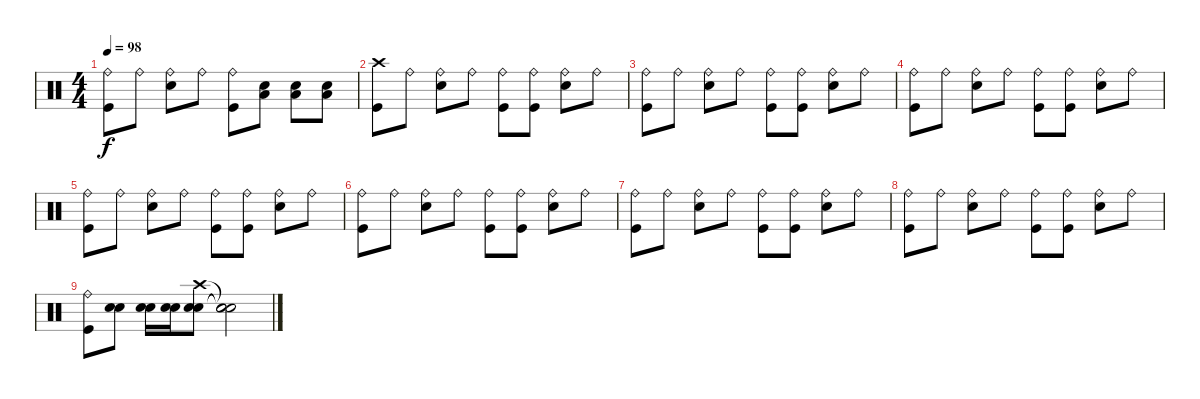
\track "" {instrument percussion}
\staff {score}
\articulation defaults
\ts (4 4)
\tempo 98
\clef neutral
\ks c
("Ride (bell)" "Kick (hit)").8{dy f} "Ride (bell)".8 ("Ride (bell)" "Snare (hit) 2").8 "Ride (bell)".8 ("Ride (bell)" "Kick (hit)").8 ("Low Tom (hit)" "Snare (hit) 2").8 ("Low Tom (hit)" "Snare (hit) 2").8 ("Low Tom (hit)" "Snare (hit) 2").8 |
("Crash high (hit)" "Kick (hit)").8 "Ride (bell)".8 ("Ride (bell)" "Snare (hit) 2").8 "Ride (bell)".8 ("Ride (bell)" "Kick (hit)").8 ("Ride (bell)" "Kick (hit)").8 ("Ride (bell)" "Snare (hit) 2").8 "Ride (bell)".8 |
("Ride (bell)" "Kick (hit)").8 "Ride (bell)".8 ("Ride (bell)" "Snare (hit) 2").8 "Ride (bell)".8 ("Ride (bell)" "Kick (hit)").8 ("Ride (bell)" "Kick (hit)").8 ("Ride (bell)" "Snare (hit) 2").8 "Ride (bell)".8 |
("Ride (bell)" "Kick (hit)").8 "Ride (bell)".8 ("Ride (bell)" "Snare (hit) 2").8 "Ride (bell)".8 ("Ride (bell)" "Kick (hit)").8 ("Ride (bell)" "Kick (hit)").8 ("Ride (bell)" "Snare (hit) 2").8 "Ride (bell)".8 |
("Ride (bell)" "Kick (hit)").8 "Ride (bell)".8 ("Ride (bell)" "Snare (hit) 2").8 "Ride (bell)".8 ("Ride (bell)" "Kick (hit)").8 ("Ride (bell)" "Kick (hit)").8 ("Ride (bell)" "Snare (hit) 2").8 "Ride (bell)".8 |
("Ride (bell)" "Kick (hit)").8 "Ride (bell)".8 ("Ride (bell)" "Snare (hit) 2").8 "Ride (bell)".8 ("Ride (bell)" "Kick (hit)").8 ("Ride (bell)" "Kick (hit)").8 ("Ride (bell)" "Snare (hit) 2").8 "Ride (bell)".8 |
("Ride (bell)" "Kick (hit)").8 "Ride (bell)".8 ("Ride (bell)" "Snare (hit) 2").8 "Ride (bell)".8 ("Ride (bell)" "Kick (hit)").8 ("Ride (bell)" "Kick (hit)").8 ("Ride (bell)" "Snare (hit) 2").8 "Ride (bell)".8 |
("Ride (bell)" "Kick (hit)").8 "Ride (bell)".8 ("Ride (bell)" "Snare (hit) 2").8 "Ride (bell)".8 ("Ride (bell)" "Kick (hit)").8 ("Ride (bell)" "Kick (hit)").8 ("Ride (bell)" "Snare (hit) 2").8 "Ride (bell)".8 |
("Ride (bell)" "Kick (hit)").8 ("Snare (hit) 2" "Snare (hit) 2").8 ("Snare (hit) 2" "Snare (hit) 2").16 ("Snare (hit) 2" "Snare (hit) 2").16 ("Crash high (hit)" "Snare (hit) 2" "Snare (hit) 2").8 ("Snare (hit)"{t} "Snare (hit)"{t} "Snare (hit)"{t}).2
